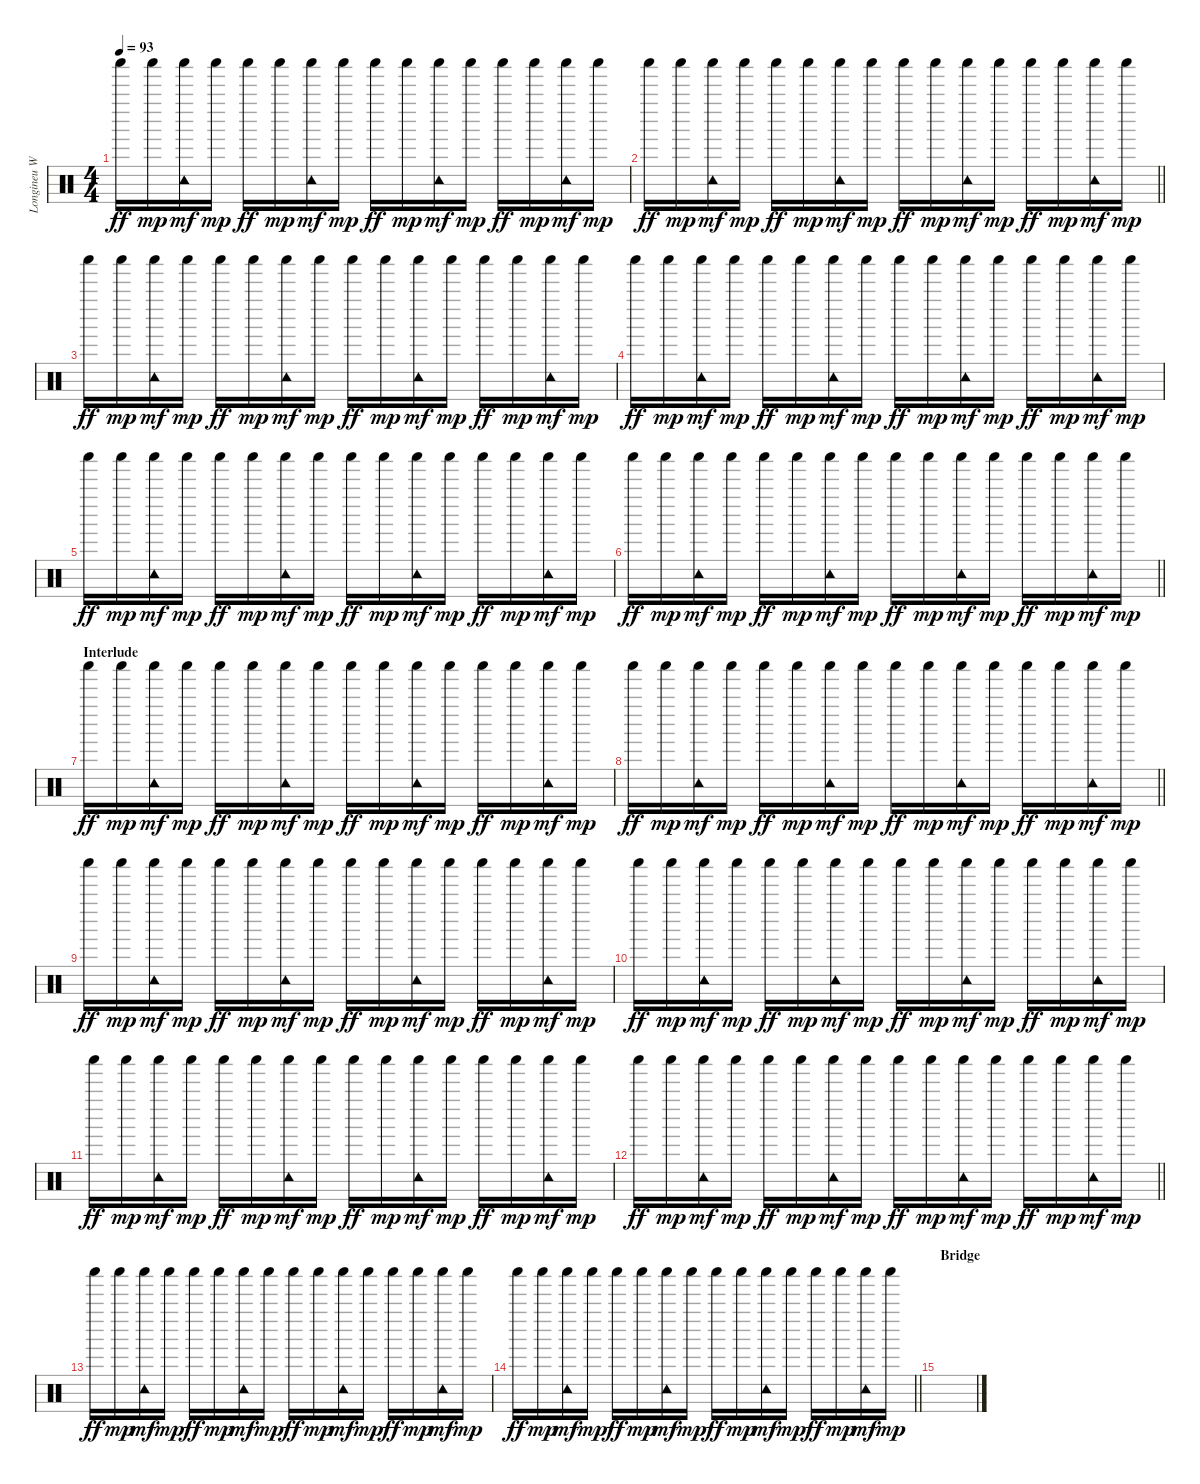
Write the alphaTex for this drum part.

\track ("Longineu W. Parsons |||" "Longineu W") {instrument percussion}
\staff {score}
\articulation defaults
\ts (4 4)
\tempo 93
\clef neutral
\ks c "Shaker (hit)".16{dy ff} "Shaker (hit)".16{dy mp}
("Tambourine (hit)" "Shaker (hit)").16{dy mf} "Shaker (hit)".16{dy mp} "Shaker (hit)".16{dy ff} "Shaker (hit)".16{dy mp} ("Tambourine (hit)" "Shaker (hit)").16{dy mf} "Shaker (hit)".16{dy mp} "Shaker (hit)".16{dy ff} "Shaker (hit)".16{dy mp} ("Tambourine (hit)" "Shaker (hit)").16{dy mf} "Shaker (hit)".16{dy mp} "Shaker (hit)".16{dy ff} "Shaker (hit)".16{dy mp} ("Tambourine (hit)" "Shaker (hit)").16{dy mf} "Shaker (hit)".16{dy mp} |
\barLineRight lightlight "Shaker (hit)".16{dy ff} "Shaker (hit)".16{dy mp}
("Tambourine (hit)" "Shaker (hit)").16{dy mf} "Shaker (hit)".16{dy mp} "Shaker (hit)".16{dy ff} "Shaker (hit)".16{dy mp} ("Tambourine (hit)" "Shaker (hit)").16{dy mf} "Shaker (hit)".16{dy mp} "Shaker (hit)".16{dy ff} "Shaker (hit)".16{dy mp} ("Tambourine (hit)" "Shaker (hit)").16{dy mf} "Shaker (hit)".16{dy mp} "Shaker (hit)".16{dy ff} "Shaker (hit)".16{dy mp} ("Tambourine (hit)" "Shaker (hit)").16{dy mf} "Shaker (hit)".16{dy mp} |
"Shaker (hit)".16{dy ff} "Shaker (hit)".16{dy mp} ("Tambourine (hit)" "Shaker (hit)").16{dy mf} "Shaker (hit)".16{dy mp} "Shaker (hit)".16{dy ff} "Shaker (hit)".16{dy mp} ("Tambourine (hit)" "Shaker (hit)").16{dy mf} "Shaker (hit)".16{dy mp} "Shaker (hit)".16{dy ff} "Shaker (hit)".16{dy mp} ("Tambourine (hit)" "Shaker (hit)").16{dy mf} "Shaker (hit)".16{dy mp} "Shaker (hit)".16{dy ff} "Shaker (hit)".16{dy mp} ("Tambourine (hit)" "Shaker (hit)").16{dy mf} "Shaker (hit)".16{dy mp} |
"Shaker (hit)".16{dy ff} "Shaker (hit)".16{dy mp} ("Tambourine (hit)" "Shaker (hit)").16{dy mf} "Shaker (hit)".16{dy mp} "Shaker (hit)".16{dy ff} "Shaker (hit)".16{dy mp} ("Tambourine (hit)" "Shaker (hit)").16{dy mf} "Shaker (hit)".16{dy mp} "Shaker (hit)".16{dy ff} "Shaker (hit)".16{dy mp} ("Tambourine (hit)" "Shaker (hit)").16{dy mf} "Shaker (hit)".16{dy mp} "Shaker (hit)".16{dy ff} "Shaker (hit)".16{dy mp} ("Tambourine (hit)" "Shaker (hit)").16{dy mf} "Shaker (hit)".16{dy mp} |
"Shaker (hit)".16{dy ff} "Shaker (hit)".16{dy mp} ("Tambourine (hit)" "Shaker (hit)").16{dy mf} "Shaker (hit)".16{dy mp} "Shaker (hit)".16{dy ff} "Shaker (hit)".16{dy mp} ("Tambourine (hit)" "Shaker (hit)").16{dy mf} "Shaker (hit)".16{dy mp} "Shaker (hit)".16{dy ff} "Shaker (hit)".16{dy mp} ("Tambourine (hit)" "Shaker (hit)").16{dy mf} "Shaker (hit)".16{dy mp} "Shaker (hit)".16{dy ff} "Shaker (hit)".16{dy mp} ("Tambourine (hit)" "Shaker (hit)").16{dy mf} "Shaker (hit)".16{dy mp} |
\barLineRight lightlight "Shaker (hit)".16{dy ff} "Shaker (hit)".16{dy mp}
("Tambourine (hit)" "Shaker (hit)").16{dy mf} "Shaker (hit)".16{dy mp} "Shaker (hit)".16{dy ff} "Shaker (hit)".16{dy mp} ("Tambourine (hit)" "Shaker (hit)").16{dy mf} "Shaker (hit)".16{dy mp} "Shaker (hit)".16{dy ff} "Shaker (hit)".16{dy mp} ("Tambourine (hit)" "Shaker (hit)").16{dy mf} "Shaker (hit)".16{dy mp} "Shaker (hit)".16{dy ff} "Shaker (hit)".16{dy mp} ("Tambourine (hit)" "Shaker (hit)").16{dy mf} "Shaker (hit)".16{dy mp} |
\section ("" "Interlude")
"Shaker (hit)".16{dy ff} "Shaker (hit)".16{dy mp} ("Tambourine (hit)" "Shaker (hit)").16{dy mf} "Shaker (hit)".16{dy mp} "Shaker (hit)".16{dy ff} "Shaker (hit)".16{dy mp} ("Tambourine (hit)" "Shaker (hit)").16{dy mf} "Shaker (hit)".16{dy mp} "Shaker (hit)".16{dy ff} "Shaker (hit)".16{dy mp} ("Tambourine (hit)" "Shaker (hit)").16{dy mf} "Shaker (hit)".16{dy mp} "Shaker (hit)".16{dy ff} "Shaker (hit)".16{dy mp} ("Tambourine (hit)" "Shaker (hit)").16{dy mf} "Shaker (hit)".16{dy mp} |
\barLineRight lightlight "Shaker (hit)".16{dy ff} "Shaker (hit)".16{dy mp}
("Tambourine (hit)" "Shaker (hit)").16{dy mf} "Shaker (hit)".16{dy mp} "Shaker (hit)".16{dy ff} "Shaker (hit)".16{dy mp} ("Tambourine (hit)" "Shaker (hit)").16{dy mf} "Shaker (hit)".16{dy mp} "Shaker (hit)".16{dy ff} "Shaker (hit)".16{dy mp} ("Tambourine (hit)" "Shaker (hit)").16{dy mf} "Shaker (hit)".16{dy mp} "Shaker (hit)".16{dy ff} "Shaker (hit)".16{dy mp} ("Tambourine (hit)" "Shaker (hit)").16{dy mf} "Shaker (hit)".16{dy mp} |
"Shaker (hit)".16{dy ff} "Shaker (hit)".16{dy mp} ("Tambourine (hit)" "Shaker (hit)").16{dy mf} "Shaker (hit)".16{dy mp} "Shaker (hit)".16{dy ff} "Shaker (hit)".16{dy mp} ("Tambourine (hit)" "Shaker (hit)").16{dy mf} "Shaker (hit)".16{dy mp} "Shaker (hit)".16{dy ff} "Shaker (hit)".16{dy mp} ("Tambourine (hit)" "Shaker (hit)").16{dy mf} "Shaker (hit)".16{dy mp} "Shaker (hit)".16{dy ff} "Shaker (hit)".16{dy mp} ("Tambourine (hit)" "Shaker (hit)").16{dy mf} "Shaker (hit)".16{dy mp} |
"Shaker (hit)".16{dy ff} "Shaker (hit)".16{dy mp} ("Tambourine (hit)" "Shaker (hit)").16{dy mf} "Shaker (hit)".16{dy mp} "Shaker (hit)".16{dy ff} "Shaker (hit)".16{dy mp} ("Tambourine (hit)" "Shaker (hit)").16{dy mf} "Shaker (hit)".16{dy mp} "Shaker (hit)".16{dy ff} "Shaker (hit)".16{dy mp} ("Tambourine (hit)" "Shaker (hit)").16{dy mf} "Shaker (hit)".16{dy mp} "Shaker (hit)".16{dy ff} "Shaker (hit)".16{dy mp} ("Tambourine (hit)" "Shaker (hit)").16{dy mf} "Shaker (hit)".16{dy mp} |
"Shaker (hit)".16{dy ff} "Shaker (hit)".16{dy mp} ("Tambourine (hit)" "Shaker (hit)").16{dy mf} "Shaker (hit)".16{dy mp} "Shaker (hit)".16{dy ff} "Shaker (hit)".16{dy mp} ("Tambourine (hit)" "Shaker (hit)").16{dy mf} "Shaker (hit)".16{dy mp} "Shaker (hit)".16{dy ff} "Shaker (hit)".16{dy mp} ("Tambourine (hit)" "Shaker (hit)").16{dy mf} "Shaker (hit)".16{dy mp} "Shaker (hit)".16{dy ff} "Shaker (hit)".16{dy mp} ("Tambourine (hit)" "Shaker (hit)").16{dy mf} "Shaker (hit)".16{dy mp} |
\barLineRight lightlight "Shaker (hit)".16{dy ff} "Shaker (hit)".16{dy mp}
("Tambourine (hit)" "Shaker (hit)").16{dy mf} "Shaker (hit)".16{dy mp} "Shaker (hit)".16{dy ff} "Shaker (hit)".16{dy mp} ("Tambourine (hit)" "Shaker (hit)").16{dy mf} "Shaker (hit)".16{dy mp} "Shaker (hit)".16{dy ff} "Shaker (hit)".16{dy mp} ("Tambourine (hit)" "Shaker (hit)").16{dy mf} "Shaker (hit)".16{dy mp} "Shaker (hit)".16{dy ff} "Shaker (hit)".16{dy mp} ("Tambourine (hit)" "Shaker (hit)").16{dy mf} "Shaker (hit)".16{dy mp} |
"Shaker (hit)".16{dy ff} "Shaker (hit)".16{dy mp} ("Tambourine (hit)" "Shaker (hit)").16{dy mf} "Shaker (hit)".16{dy mp} "Shaker (hit)".16{dy ff} "Shaker (hit)".16{dy mp} ("Tambourine (hit)" "Shaker (hit)").16{dy mf} "Shaker (hit)".16{dy mp} "Shaker (hit)".16{dy ff} "Shaker (hit)".16{dy mp} ("Tambourine (hit)" "Shaker (hit)").16{dy mf} "Shaker (hit)".16{dy mp} "Shaker (hit)".16{dy ff} "Shaker (hit)".16{dy mp} ("Tambourine (hit)" "Shaker (hit)").16{dy mf} "Shaker (hit)".16{dy mp} |
\barLineRight lightlight "Shaker (hit)".16{dy ff} "Shaker (hit)".16{dy mp}
("Tambourine (hit)" "Shaker (hit)").16{dy mf} "Shaker (hit)".16{dy mp} "Shaker (hit)".16{dy ff} "Shaker (hit)".16{dy mp} ("Tambourine (hit)" "Shaker (hit)").16{dy mf} "Shaker (hit)".16{dy mp} "Shaker (hit)".16{dy ff} "Shaker (hit)".16{dy mp} ("Tambourine (hit)" "Shaker (hit)").16{dy mf} "Shaker (hit)".16{dy mp} "Shaker (hit)".16{dy ff} "Shaker (hit)".16{dy mp} ("Tambourine (hit)" "Shaker (hit)").16{dy mf} "Shaker (hit)".16{dy mp} |
\section ("" "Bridge")
